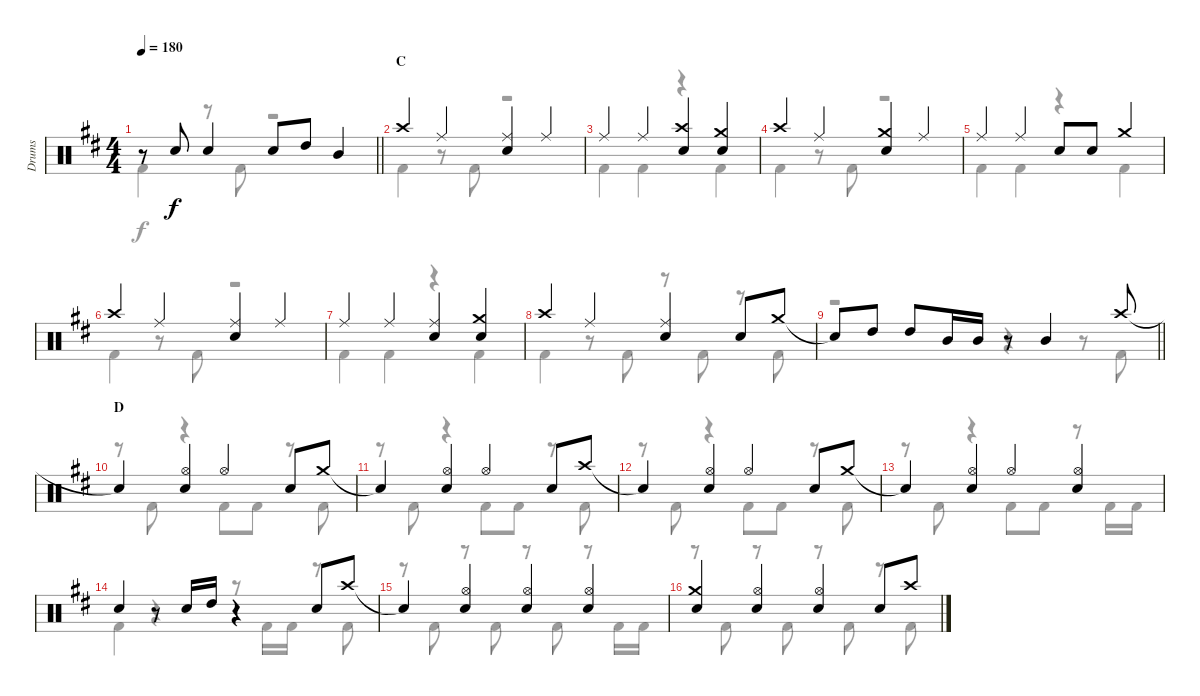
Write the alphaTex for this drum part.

\track ("Drums" "Drums") {instrument percussion}
\staff {score}
\articulation defaults
\voice
\ts (4 4)
\tempo 180
\clef neutral
\barLineRight lightlight
\ks d
r.8{dy f} "Snare (hit) 2".8 "Snare (hit) 2".4 "Snare (hit) 2".8 "High Tom (hit)".8 "Mid Tom (hit)".4 |
\section ("" "C")
"Crash high (hit)".4 "Ride (middle)".4 ("Ride (middle)" "Snare (hit) 2").4 "Ride (middle)".4 |
"Ride (middle)".4 "Ride (middle)".4 ("Crash high (hit)" "Snare (hit) 2").4 ("Crash medium (hit)" "Snare (hit) 2").4 |
"Crash high (hit)".4 "Ride (middle)".4 ("Crash medium (hit)" "Snare (hit) 2").4 "Ride (middle)".4 |
"Ride (middle)".4 "Ride (middle)".4 "Snare (hit) 2".8 "Snare (hit) 2".8 "Crash medium (hit)".4 |
"Crash high (hit)".4 "Ride (middle)".4 ("Ride (middle)" "Snare (hit) 2").4 "Ride (middle)".4 |
"Ride (middle)".4 "Ride (middle)".4 ("Ride (middle)" "Snare (hit) 2").4 ("Crash medium (hit)" "Snare (hit) 2").4 |
"Crash high (hit)".4 "Ride (middle)".4 ("Ride (middle)" "Snare (hit) 2").4 "Snare (hit) 2".8 "Crash medium (hit)".8 |
\barLineRight lightlight "Snare (hit)"{t}.8 "High Tom (hit)".8 "High Tom (hit)".8 "Mid Tom (hit)".16 "Mid Tom (hit)".16
r.8 "Mid Tom (hit)".4 "Crash high (hit)".8 |
\section ("" "D")
"Snare (hit)"{t}.4 ("Hi-Hat (open)" "Snare (hit) 2").4 "Hi-Hat (open)".4 "Snare (hit) 2".8 "Crash medium (hit)".8 |
"Snare (hit)"{t}.4 ("Hi-Hat (open)" "Snare (hit) 2").4 "Hi-Hat (open)".4 "Snare (hit) 2".8 "Crash high (hit)".8 |
"Snare (hit)"{t}.4 ("Hi-Hat (open)" "Snare (hit) 2").4 "Hi-Hat (open)".4 "Snare (hit) 2".8 "Crash medium (hit)".8 |
"Snare (hit)"{t}.4 ("Hi-Hat (open)" "Snare (hit) 2").4 "Hi-Hat (open)".4 ("Hi-Hat (open)" "Snare (hit) 2").4 |
"Snare (hit) 2".4 r.8 "Snare (hit) 2".16 "High Tom (hit)".16 r.4 "Snare (hit) 2".8 "Crash high (hit)".8 |
"Snare (hit)"{t}.4 ("Hi-Hat (open)" "Snare (hit) 2").4 ("Hi-Hat (open)" "Snare (hit) 2").4 ("Hi-Hat (open)" "Snare (hit) 2").4 |
("Crash medium (hit)" "Snare (hit) 2").4 ("Hi-Hat (open)" "Snare (hit) 2").4 ("Hi-Hat (open)" "Snare (hit) 2").4 "Snare (hit) 2".8 "Crash high (hit)".8
\voice
\clef neutral
\ottava regular
\simile none
\barLineRight lightlight
\ks d "Kick (hit) 2".4{dy f}
r.8 "Kick (hit) 2".8 r.2 |
"Kick (hit) 2".4 r.8 "Kick (hit) 2".8 r.2 |
"Kick (hit) 2".4 "Kick (hit) 2".4 r.4 "Kick (hit) 2".4 |
"Kick (hit) 2".4 r.8 "Kick (hit) 2".8 r.2 |
"Kick (hit) 2".4 "Kick (hit) 2".4 r.4 "Kick (hit) 2".4 |
"Kick (hit) 2".4 r.8 "Kick (hit) 2".8 r.2 |
"Kick (hit) 2".4 "Kick (hit) 2".4 r.4 "Kick (hit) 2".4 |
"Kick (hit) 2".4 r.8 "Kick (hit) 2".8 r.8 "Kick (hit) 2".8 r.8 "Kick (hit) 2".8 |
\barLineRight lightlight
r.2 r.4 r.8 "Kick (hit) 2".8 |
r.8 "Kick (hit) 2".8 r.4 "Kick (hit) 2".8 "Kick (hit) 2".8 r.8 "Kick (hit) 2".8 |
r.8 "Kick (hit) 2".8 r.4 "Kick (hit) 2".8 "Kick (hit) 2".8 r.8 "Kick (hit) 2".8 |
r.8 "Kick (hit) 2".8 r.4 "Kick (hit) 2".8 "Kick (hit) 2".8 r.8 "Kick (hit) 2".8 |
r.8 "Kick (hit) 2".8 r.4 "Kick (hit) 2".8 "Kick (hit) 2".8 r.8 "Kick (hit) 2".16 "Kick (hit) 2".16 |
"Kick (hit) 2".4 r.4 r.8 "Kick (hit) 2".16 "Kick (hit) 2".16 r.8 "Kick (hit) 2".8 |
r.8 "Kick (hit) 2".8 r.8 "Kick (hit) 2".8 r.8 "Kick (hit) 2".8 r.8 "Kick (hit) 2".16 "Kick (hit) 2".16 |
r.8 "Kick (hit) 2".8 r.8 "Kick (hit) 2".8 r.8 "Kick (hit) 2".8 r.8 "Kick (hit) 2".8
